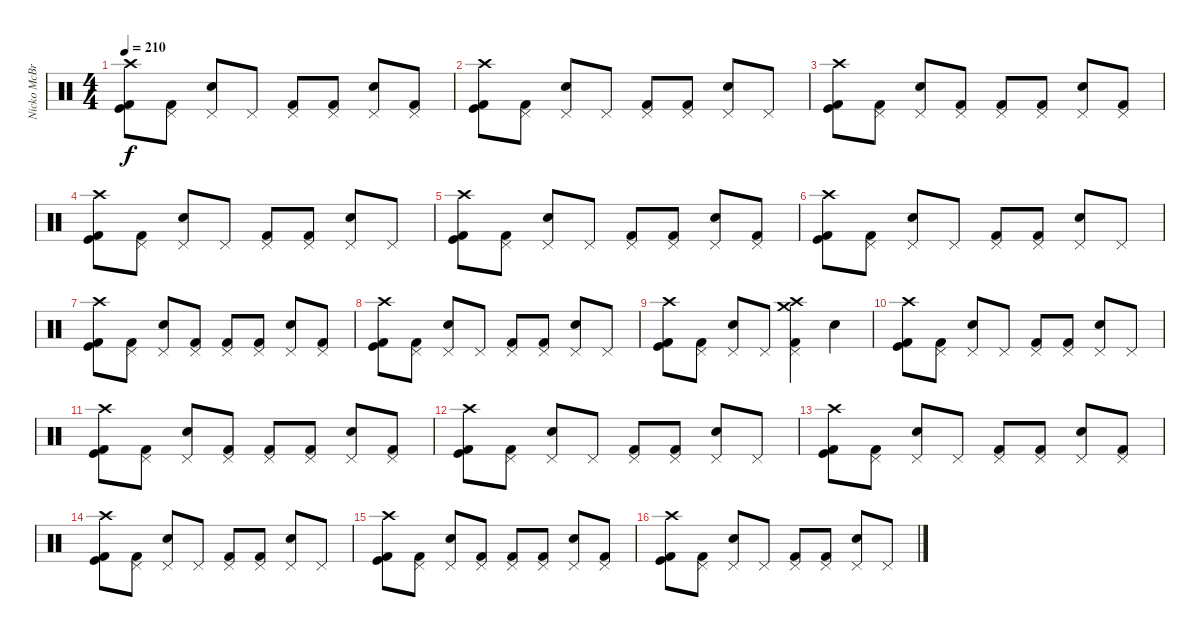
\track ("Nicko McBrain" "Nicko McBr") {instrument percussion}
\staff {score}
\articulation defaults
\ts (4 4)
\tempo 210
\clef neutral
\ks c
("Crash high (hit)" "Kick (hit)" "Kick (hit) 2").8{dy f} ("Pedal Hi-Hat (hit)" "Kick (hit) 2").8 ("Pedal Hi-Hat (hit)" "Snare (hit) 2").8 "Pedal Hi-Hat (hit)".8 ("Pedal Hi-Hat (hit)" "Kick (hit) 2").8 ("Pedal Hi-Hat (hit)" "Kick (hit) 2").8 ("Pedal Hi-Hat (hit)" "Snare (hit) 2").8 ("Pedal Hi-Hat (hit)" "Kick (hit) 2").8 |
("Crash high (hit)" "Kick (hit)" "Kick (hit) 2").8 ("Pedal Hi-Hat (hit)" "Kick (hit) 2").8 ("Pedal Hi-Hat (hit)" "Snare (hit) 2").8 "Pedal Hi-Hat (hit)".8 ("Pedal Hi-Hat (hit)" "Kick (hit) 2").8 ("Pedal Hi-Hat (hit)" "Kick (hit) 2").8 ("Pedal Hi-Hat (hit)" "Snare (hit) 2").8 "Pedal Hi-Hat (hit)".8 |
("Crash high (hit)" "Kick (hit)" "Kick (hit) 2").8 ("Pedal Hi-Hat (hit)" "Kick (hit) 2").8 ("Pedal Hi-Hat (hit)" "Snare (hit) 2").8 ("Pedal Hi-Hat (hit)" "Kick (hit) 2").8 ("Pedal Hi-Hat (hit)" "Kick (hit) 2").8 ("Pedal Hi-Hat (hit)" "Kick (hit) 2").8 ("Pedal Hi-Hat (hit)" "Snare (hit) 2").8 ("Pedal Hi-Hat (hit)" "Kick (hit) 2").8 |
("Crash high (hit)" "Kick (hit)" "Kick (hit) 2").8 ("Pedal Hi-Hat (hit)" "Kick (hit) 2").8 ("Pedal Hi-Hat (hit)" "Snare (hit) 2").8 "Pedal Hi-Hat (hit)".8 ("Pedal Hi-Hat (hit)" "Kick (hit) 2").8 ("Pedal Hi-Hat (hit)" "Kick (hit) 2").8 ("Pedal Hi-Hat (hit)" "Snare (hit) 2").8 "Pedal Hi-Hat (hit)".8 |
("Crash high (hit)" "Kick (hit)" "Kick (hit) 2").8 ("Pedal Hi-Hat (hit)" "Kick (hit) 2").8 ("Pedal Hi-Hat (hit)" "Snare (hit) 2").8 "Pedal Hi-Hat (hit)".8 ("Pedal Hi-Hat (hit)" "Kick (hit) 2").8 ("Pedal Hi-Hat (hit)" "Kick (hit) 2").8 ("Pedal Hi-Hat (hit)" "Snare (hit) 2").8 ("Pedal Hi-Hat (hit)" "Kick (hit) 2").8 |
("Crash high (hit)" "Kick (hit)" "Kick (hit) 2").8 ("Pedal Hi-Hat (hit)" "Kick (hit) 2").8 ("Pedal Hi-Hat (hit)" "Snare (hit) 2").8 "Pedal Hi-Hat (hit)".8 ("Pedal Hi-Hat (hit)" "Kick (hit) 2").8 ("Pedal Hi-Hat (hit)" "Kick (hit) 2").8 ("Pedal Hi-Hat (hit)" "Snare (hit) 2").8 "Pedal Hi-Hat (hit)".8 |
("Crash high (hit)" "Kick (hit)" "Kick (hit) 2").8 ("Pedal Hi-Hat (hit)" "Kick (hit) 2").8 ("Pedal Hi-Hat (hit)" "Snare (hit) 2").8 ("Pedal Hi-Hat (hit)" "Kick (hit) 2").8 ("Pedal Hi-Hat (hit)" "Kick (hit) 2").8 ("Pedal Hi-Hat (hit)" "Kick (hit) 2").8 ("Pedal Hi-Hat (hit)" "Snare (hit) 2").8 ("Pedal Hi-Hat (hit)" "Kick (hit) 2").8 |
("Crash high (hit)" "Kick (hit)" "Kick (hit) 2").8 ("Pedal Hi-Hat (hit)" "Kick (hit) 2").8 ("Pedal Hi-Hat (hit)" "Snare (hit) 2").8 "Pedal Hi-Hat (hit)".8 ("Pedal Hi-Hat (hit)" "Kick (hit) 2").8 ("Pedal Hi-Hat (hit)" "Kick (hit) 2").8 ("Pedal Hi-Hat (hit)" "Snare (hit) 2").8 "Pedal Hi-Hat (hit)".8 |
("Crash high (hit)" "Kick (hit)" "Kick (hit) 2").8 ("Pedal Hi-Hat (hit)" "Kick (hit) 2").8 ("Pedal Hi-Hat (hit)" "Snare (hit) 2").8 "Pedal Hi-Hat (hit)".8 ("Pedal Hi-Hat (hit)" "Crash medium (hit)" "Crash high (hit)" "Kick (hit) 2").4 "Snare (hit) 2".4 |
("Crash high (hit)" "Kick (hit)" "Kick (hit) 2").8 ("Pedal Hi-Hat (hit)" "Kick (hit) 2").8 ("Pedal Hi-Hat (hit)" "Snare (hit) 2").8 "Pedal Hi-Hat (hit)".8 ("Pedal Hi-Hat (hit)" "Kick (hit) 2").8 ("Pedal Hi-Hat (hit)" "Kick (hit) 2").8 ("Pedal Hi-Hat (hit)" "Snare (hit) 2").8 "Pedal Hi-Hat (hit)".8 |
("Crash high (hit)" "Kick (hit)" "Kick (hit) 2").8 ("Pedal Hi-Hat (hit)" "Kick (hit) 2").8 ("Pedal Hi-Hat (hit)" "Snare (hit) 2").8 ("Pedal Hi-Hat (hit)" "Kick (hit) 2").8 ("Pedal Hi-Hat (hit)" "Kick (hit) 2").8 ("Pedal Hi-Hat (hit)" "Kick (hit) 2").8 ("Pedal Hi-Hat (hit)" "Snare (hit) 2").8 ("Pedal Hi-Hat (hit)" "Kick (hit) 2").8 |
("Crash high (hit)" "Kick (hit)" "Kick (hit) 2").8 ("Pedal Hi-Hat (hit)" "Kick (hit) 2").8 ("Pedal Hi-Hat (hit)" "Snare (hit) 2").8 "Pedal Hi-Hat (hit)".8 ("Pedal Hi-Hat (hit)" "Kick (hit) 2").8 ("Pedal Hi-Hat (hit)" "Kick (hit) 2").8 ("Pedal Hi-Hat (hit)" "Snare (hit) 2").8 "Pedal Hi-Hat (hit)".8 |
("Crash high (hit)" "Kick (hit)" "Kick (hit) 2").8 ("Pedal Hi-Hat (hit)" "Kick (hit) 2").8 ("Pedal Hi-Hat (hit)" "Snare (hit) 2").8 "Pedal Hi-Hat (hit)".8 ("Pedal Hi-Hat (hit)" "Kick (hit) 2").8 ("Pedal Hi-Hat (hit)" "Kick (hit) 2").8 ("Pedal Hi-Hat (hit)" "Snare (hit) 2").8 ("Pedal Hi-Hat (hit)" "Kick (hit) 2").8 |
("Crash high (hit)" "Kick (hit)" "Kick (hit) 2").8 ("Pedal Hi-Hat (hit)" "Kick (hit) 2").8 ("Pedal Hi-Hat (hit)" "Snare (hit) 2").8 "Pedal Hi-Hat (hit)".8 ("Pedal Hi-Hat (hit)" "Kick (hit) 2").8 ("Pedal Hi-Hat (hit)" "Kick (hit) 2").8 ("Pedal Hi-Hat (hit)" "Snare (hit) 2").8 "Pedal Hi-Hat (hit)".8 |
("Crash high (hit)" "Kick (hit)" "Kick (hit) 2").8 ("Pedal Hi-Hat (hit)" "Kick (hit) 2").8 ("Pedal Hi-Hat (hit)" "Snare (hit) 2").8 ("Pedal Hi-Hat (hit)" "Kick (hit) 2").8 ("Pedal Hi-Hat (hit)" "Kick (hit) 2").8 ("Pedal Hi-Hat (hit)" "Kick (hit) 2").8 ("Pedal Hi-Hat (hit)" "Snare (hit) 2").8 ("Pedal Hi-Hat (hit)" "Kick (hit) 2").8 |
("Crash high (hit)" "Kick (hit)" "Kick (hit) 2").8 ("Pedal Hi-Hat (hit)" "Kick (hit) 2").8 ("Pedal Hi-Hat (hit)" "Snare (hit) 2").8 "Pedal Hi-Hat (hit)".8 ("Pedal Hi-Hat (hit)" "Kick (hit) 2").8 ("Pedal Hi-Hat (hit)" "Kick (hit) 2").8 ("Pedal Hi-Hat (hit)" "Snare (hit) 2").8 "Pedal Hi-Hat (hit)".8
